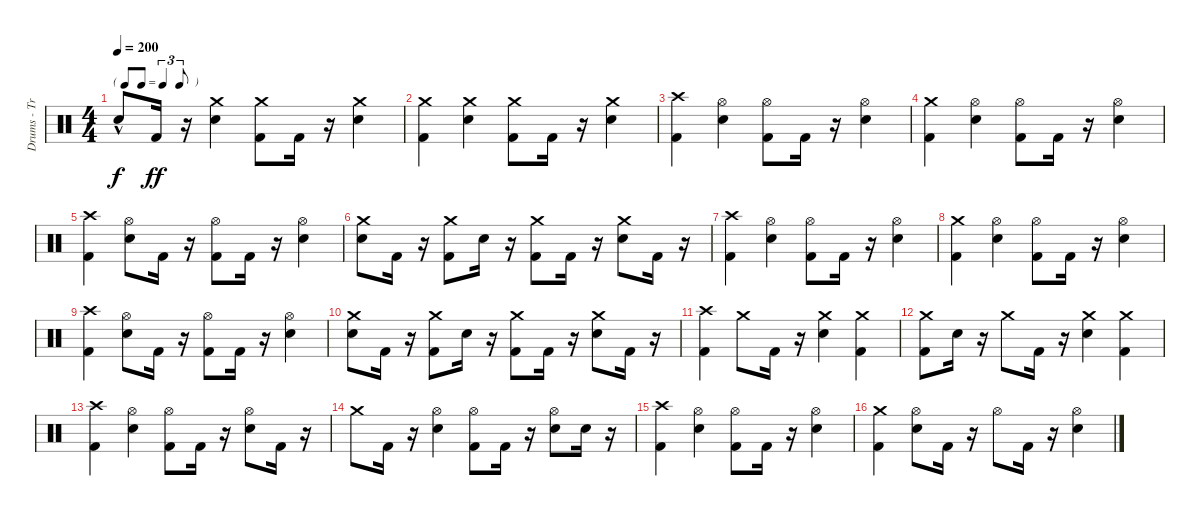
\track ("Drums - Travis" "Drums - Tr") {instrument percussion}
\staff {score}
\articulation defaults
\ts (4 4)
\tf triplet8th
\tempo 200
\clef neutral
\ks c "Snare (hit)"{hac t}.8{dy f} "Kick (hit) 2".16{dy ff}
r.16 ("Electric Snare (hit)" "Crash medium (hit)").4 ("Kick (hit) 2" "Crash medium (hit)").8 "Kick (hit) 2".16 r.16 ("Electric Snare (hit)" "Crash medium (hit)").4 |
("Kick (hit) 2" "Crash medium (hit)").4 ("Electric Snare (hit)" "Crash medium (hit)").4 ("Kick (hit) 2" "Crash medium (hit)").8 "Kick (hit) 2".16 r.16 ("Electric Snare (hit)" "Crash medium (hit)").4 |
("Kick (hit) 2" "Crash high (hit)").4 ("Electric Snare (hit)" "Hi-Hat (open)").4 ("Kick (hit) 2" "Hi-Hat (open)").8 "Kick (hit) 2".16 r.16 ("Electric Snare (hit)" "Hi-Hat (open)").4 |
("Kick (hit) 2" "Crash medium (hit)").4 ("Electric Snare (hit)" "Hi-Hat (open)").4 ("Kick (hit) 2" "Hi-Hat (open)").8 "Kick (hit) 2".16 r.16 ("Electric Snare (hit)" "Hi-Hat (open)").4 |
("Kick (hit) 2" "Crash high (hit)").4 ("Electric Snare (hit)" "Hi-Hat (open)").8 "Kick (hit) 2".16 r.16 ("Kick (hit) 2" "Hi-Hat (open)").8 "Kick (hit) 2".16 r.16 ("Electric Snare (hit)" "Hi-Hat (open)").4 |
("Electric Snare (hit)" "Crash medium (hit)").8 "Kick (hit) 2".16 r.16 ("Kick (hit) 2" "Crash medium (hit)").8 "Electric Snare (hit)".16 r.16 ("Kick (hit) 2" "Crash medium (hit)").8 "Kick (hit) 2".16 r.16 ("Electric Snare (hit)" "Crash medium (hit)").8 "Kick (hit) 2".16 r.16 |
("Kick (hit) 2" "Crash high (hit)").4 ("Electric Snare (hit)" "Hi-Hat (open)").4 ("Kick (hit) 2" "Hi-Hat (open)").8 "Kick (hit) 2".16 r.16 ("Electric Snare (hit)" "Hi-Hat (open)").4 |
("Kick (hit) 2" "Crash medium (hit)").4 ("Electric Snare (hit)" "Hi-Hat (open)").4 ("Kick (hit) 2" "Hi-Hat (open)").8 "Kick (hit) 2".16 r.16 ("Electric Snare (hit)" "Hi-Hat (open)").4 |
("Kick (hit) 2" "Crash high (hit)").4 ("Electric Snare (hit)" "Hi-Hat (open)").8 "Kick (hit) 2".16 r.16 ("Kick (hit) 2" "Hi-Hat (open)").8 "Kick (hit) 2".16 r.16 ("Electric Snare (hit)" "Hi-Hat (open)").4 |
("Electric Snare (hit)" "Crash medium (hit)").8 "Kick (hit) 2".16 r.16 ("Kick (hit) 2" "Crash medium (hit)").8 "Electric Snare (hit)".16 r.16 ("Kick (hit) 2" "Crash medium (hit)").8 "Kick (hit) 2".16 r.16 ("Electric Snare (hit)" "Crash medium (hit)").8 "Kick (hit) 2".16 r.16 |
("Crash high (hit)" "Kick (hit) 2").4 "Crash medium (hit)".8 "Kick (hit) 2".16 r.16 ("Crash medium (hit)" "Electric Snare (hit)").4 ("Crash medium (hit)" "Kick (hit) 2").4 |
("Crash medium (hit)" "Kick (hit) 2").8 "Electric Snare (hit)".16 r.16 "Crash medium (hit)".8 "Kick (hit) 2".16 r.16 ("Crash medium (hit)" "Electric Snare (hit)").4 ("Crash medium (hit)" "Kick (hit) 2").4 |
("Crash high (hit)" "Kick (hit) 2").4 ("Hi-Hat (open)" "Electric Snare (hit)").4 ("Hi-Hat (open)" "Kick (hit) 2").8 "Kick (hit) 2".16 r.16 ("Hi-Hat (open)" "Electric Snare (hit)").8 "Kick (hit) 2".16 r.16 |
"Crash medium (hit)".8 "Kick (hit) 2".16 r.16 ("Hi-Hat (open)" "Electric Snare (hit)").4 ("Hi-Hat (open)" "Kick (hit) 2").8 "Kick (hit) 2".16 r.16 ("Hi-Hat (open)" "Electric Snare (hit)").8 "Electric Snare (hit)".16 r.16 |
("Kick (hit) 2" "Crash high (hit)").4 ("Electric Snare (hit)" "Hi-Hat (open)").4 ("Kick (hit) 2" "Hi-Hat (open)").8 "Kick (hit) 2".16 r.16 ("Electric Snare (hit)" "Hi-Hat (open)").4 |
("Kick (hit) 2" "Crash medium (hit)").4 ("Electric Snare (hit)" "Hi-Hat (open)").8 "Kick (hit) 2".16 r.16 "Hi-Hat (open)".8 "Kick (hit) 2".16 r.16 ("Electric Snare (hit)" "Hi-Hat (open)").4
